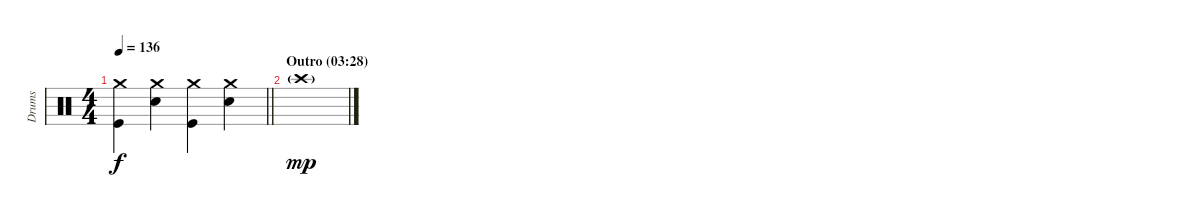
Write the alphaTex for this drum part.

\track ("Drums" "Drums") {instrument percussion}
\staff {score}
\articulation defaults
\ts (4 4)
\tempo 136
\clef neutral
\barLineRight lightlight
\ks c
("Crash medium (hit)" "Kick (hit)").4{dy f} ("Crash medium (hit)" "Electric Snare (hit)").4 ("Crash medium (hit)" "Kick (hit)").4 ("Crash medium (hit)" "Electric Snare (hit)").4 |
\section ("" "Outro (03:28)")
"Crash high (hit)"{g}.1{dy mp}
